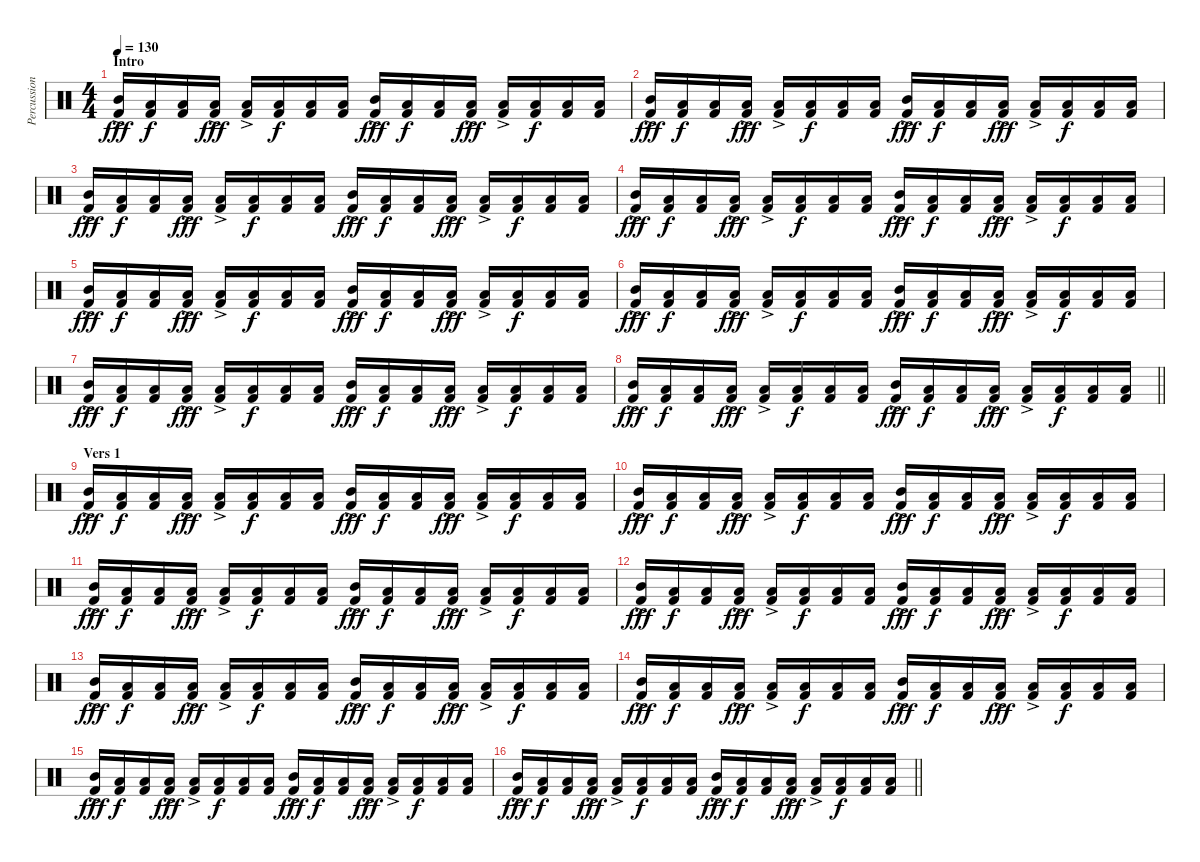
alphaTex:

\track ("Percussion" "Percussion") {instrument percussion}
\staff {score}
\articulation defaults
\ts (4 4)
\section ("" "Intro")
\tempo 130
\clef neutral
\ks c
("Mid Tom (hit)"{ac} "Kick (hit) 2").16{dy fff} ("Low Floor Tom (hit)" "Kick (hit) 2").16{dy f} ("Low Floor Tom (hit)" "Kick (hit) 2").16 ("Low Tom (hit)"{ac} "Kick (hit) 2").16{dy fff} ("Low Tom (hit)"{ac} "Kick (hit) 2").16 ("Low Floor Tom (hit)" "Kick (hit) 2").16{dy f} ("Low Floor Tom (hit)" "Kick (hit) 2").16 ("Low Floor Tom (hit)" "Kick (hit) 2").16 ("Mid Tom (hit)"{ac} "Kick (hit) 2").16{dy fff} ("Low Floor Tom (hit)" "Kick (hit) 2").16{dy f} ("Low Floor Tom (hit)" "Kick (hit) 2").16 ("Low Tom (hit)"{ac} "Kick (hit) 2").16{dy fff} ("Low Tom (hit)"{ac} "Kick (hit) 2").16 ("Low Floor Tom (hit)" "Kick (hit) 2").16{dy f} ("Low Floor Tom (hit)" "Kick (hit) 2").16 ("Low Floor Tom (hit)" "Kick (hit) 2").16 |
("Mid Tom (hit)"{ac} "Kick (hit) 2").16{dy fff} ("Low Floor Tom (hit)" "Kick (hit) 2").16{dy f} ("Low Floor Tom (hit)" "Kick (hit) 2").16 ("Low Tom (hit)"{ac} "Kick (hit) 2").16{dy fff} ("Low Tom (hit)"{ac} "Kick (hit) 2").16 ("Low Floor Tom (hit)" "Kick (hit) 2").16{dy f} ("Low Floor Tom (hit)" "Kick (hit) 2").16 ("Low Floor Tom (hit)" "Kick (hit) 2").16 ("Mid Tom (hit)"{ac} "Kick (hit) 2").16{dy fff} ("Low Floor Tom (hit)" "Kick (hit) 2").16{dy f} ("Low Floor Tom (hit)" "Kick (hit) 2").16 ("Low Tom (hit)"{ac} "Kick (hit) 2").16{dy fff} ("Low Tom (hit)"{ac} "Kick (hit) 2").16 ("Low Floor Tom (hit)" "Kick (hit) 2").16{dy f} ("Low Floor Tom (hit)" "Kick (hit) 2").16 ("Low Floor Tom (hit)" "Kick (hit) 2").16 |
("Mid Tom (hit)"{ac} "Kick (hit) 2").16{dy fff} ("Low Floor Tom (hit)" "Kick (hit) 2").16{dy f} ("Low Floor Tom (hit)" "Kick (hit) 2").16 ("Low Tom (hit)"{ac} "Kick (hit) 2").16{dy fff} ("Low Tom (hit)"{ac} "Kick (hit) 2").16 ("Low Floor Tom (hit)" "Kick (hit) 2").16{dy f} ("Low Floor Tom (hit)" "Kick (hit) 2").16 ("Low Floor Tom (hit)" "Kick (hit) 2").16 ("Mid Tom (hit)"{ac} "Kick (hit) 2").16{dy fff} ("Low Floor Tom (hit)" "Kick (hit) 2").16{dy f} ("Low Floor Tom (hit)" "Kick (hit) 2").16 ("Low Tom (hit)"{ac} "Kick (hit) 2").16{dy fff} ("Low Tom (hit)"{ac} "Kick (hit) 2").16 ("Low Floor Tom (hit)" "Kick (hit) 2").16{dy f} ("Low Floor Tom (hit)" "Kick (hit) 2").16 ("Low Floor Tom (hit)" "Kick (hit) 2").16 |
("Mid Tom (hit)"{ac} "Kick (hit) 2").16{dy fff} ("Low Floor Tom (hit)" "Kick (hit) 2").16{dy f} ("Low Floor Tom (hit)" "Kick (hit) 2").16 ("Low Tom (hit)"{ac} "Kick (hit) 2").16{dy fff} ("Low Tom (hit)"{ac} "Kick (hit) 2").16 ("Low Floor Tom (hit)" "Kick (hit) 2").16{dy f} ("Low Floor Tom (hit)" "Kick (hit) 2").16 ("Low Floor Tom (hit)" "Kick (hit) 2").16 ("Mid Tom (hit)"{ac} "Kick (hit) 2").16{dy fff} ("Low Floor Tom (hit)" "Kick (hit) 2").16{dy f} ("Low Floor Tom (hit)" "Kick (hit) 2").16 ("Low Tom (hit)"{ac} "Kick (hit) 2").16{dy fff} ("Low Tom (hit)"{ac} "Kick (hit) 2").16 ("Low Floor Tom (hit)" "Kick (hit) 2").16{dy f} ("Low Floor Tom (hit)" "Kick (hit) 2").16 ("Low Floor Tom (hit)" "Kick (hit) 2").16 |
("Mid Tom (hit)"{ac} "Kick (hit) 2").16{dy fff} ("Low Floor Tom (hit)" "Kick (hit) 2").16{dy f} ("Low Floor Tom (hit)" "Kick (hit) 2").16 ("Low Tom (hit)"{ac} "Kick (hit) 2").16{dy fff} ("Low Tom (hit)"{ac} "Kick (hit) 2").16 ("Low Floor Tom (hit)" "Kick (hit) 2").16{dy f} ("Low Floor Tom (hit)" "Kick (hit) 2").16 ("Low Floor Tom (hit)" "Kick (hit) 2").16 ("Mid Tom (hit)"{ac} "Kick (hit) 2").16{dy fff} ("Low Floor Tom (hit)" "Kick (hit) 2").16{dy f} ("Low Floor Tom (hit)" "Kick (hit) 2").16 ("Low Tom (hit)"{ac} "Kick (hit) 2").16{dy fff} ("Low Tom (hit)"{ac} "Kick (hit) 2").16 ("Low Floor Tom (hit)" "Kick (hit) 2").16{dy f} ("Low Floor Tom (hit)" "Kick (hit) 2").16 ("Low Floor Tom (hit)" "Kick (hit) 2").16 |
("Mid Tom (hit)"{ac} "Kick (hit) 2").16{dy fff} ("Low Floor Tom (hit)" "Kick (hit) 2").16{dy f} ("Low Floor Tom (hit)" "Kick (hit) 2").16 ("Low Tom (hit)"{ac} "Kick (hit) 2").16{dy fff} ("Low Tom (hit)"{ac} "Kick (hit) 2").16 ("Low Floor Tom (hit)" "Kick (hit) 2").16{dy f} ("Low Floor Tom (hit)" "Kick (hit) 2").16 ("Low Floor Tom (hit)" "Kick (hit) 2").16 ("Mid Tom (hit)"{ac} "Kick (hit) 2").16{dy fff} ("Low Floor Tom (hit)" "Kick (hit) 2").16{dy f} ("Low Floor Tom (hit)" "Kick (hit) 2").16 ("Low Tom (hit)"{ac} "Kick (hit) 2").16{dy fff} ("Low Tom (hit)"{ac} "Kick (hit) 2").16 ("Low Floor Tom (hit)" "Kick (hit) 2").16{dy f} ("Low Floor Tom (hit)" "Kick (hit) 2").16 ("Low Floor Tom (hit)" "Kick (hit) 2").16 |
("Mid Tom (hit)"{ac} "Kick (hit) 2").16{dy fff} ("Low Floor Tom (hit)" "Kick (hit) 2").16{dy f} ("Low Floor Tom (hit)" "Kick (hit) 2").16 ("Low Tom (hit)"{ac} "Kick (hit) 2").16{dy fff} ("Low Tom (hit)"{ac} "Kick (hit) 2").16 ("Low Floor Tom (hit)" "Kick (hit) 2").16{dy f} ("Low Floor Tom (hit)" "Kick (hit) 2").16 ("Low Floor Tom (hit)" "Kick (hit) 2").16 ("Mid Tom (hit)"{ac} "Kick (hit) 2").16{dy fff} ("Low Floor Tom (hit)" "Kick (hit) 2").16{dy f} ("Low Floor Tom (hit)" "Kick (hit) 2").16 ("Low Tom (hit)"{ac} "Kick (hit) 2").16{dy fff} ("Low Tom (hit)"{ac} "Kick (hit) 2").16 ("Low Floor Tom (hit)" "Kick (hit) 2").16{dy f} ("Low Floor Tom (hit)" "Kick (hit) 2").16 ("Low Floor Tom (hit)" "Kick (hit) 2").16 |
\barLineRight lightlight
("Mid Tom (hit)"{ac} "Kick (hit) 2").16{dy fff} ("Low Floor Tom (hit)" "Kick (hit) 2").16{dy f} ("Low Floor Tom (hit)" "Kick (hit) 2").16 ("Low Tom (hit)"{ac} "Kick (hit) 2").16{dy fff} ("Low Tom (hit)"{ac} "Kick (hit) 2").16 ("Low Floor Tom (hit)" "Kick (hit) 2").16{dy f} ("Low Floor Tom (hit)" "Kick (hit) 2").16 ("Low Floor Tom (hit)" "Kick (hit) 2").16 ("Mid Tom (hit)"{ac} "Kick (hit) 2").16{dy fff} ("Low Floor Tom (hit)" "Kick (hit) 2").16{dy f} ("Low Floor Tom (hit)" "Kick (hit) 2").16 ("Low Tom (hit)"{ac} "Kick (hit) 2").16{dy fff} ("Low Tom (hit)"{ac} "Kick (hit) 2").16 ("Low Floor Tom (hit)" "Kick (hit) 2").16{dy f} ("Low Floor Tom (hit)" "Kick (hit) 2").16 ("Low Floor Tom (hit)" "Kick (hit) 2").16 |
\section ("" "Vers 1")
("Mid Tom (hit)"{ac} "Kick (hit) 2").16{dy fff} ("Low Floor Tom (hit)" "Kick (hit) 2").16{dy f} ("Low Floor Tom (hit)" "Kick (hit) 2").16 ("Low Tom (hit)"{ac} "Kick (hit) 2").16{dy fff} ("Low Tom (hit)"{ac} "Kick (hit) 2").16 ("Low Floor Tom (hit)" "Kick (hit) 2").16{dy f} ("Low Floor Tom (hit)" "Kick (hit) 2").16 ("Low Floor Tom (hit)" "Kick (hit) 2").16 ("Mid Tom (hit)"{ac} "Kick (hit) 2").16{dy fff} ("Low Floor Tom (hit)" "Kick (hit) 2").16{dy f} ("Low Floor Tom (hit)" "Kick (hit) 2").16 ("Low Tom (hit)"{ac} "Kick (hit) 2").16{dy fff} ("Low Tom (hit)"{ac} "Kick (hit) 2").16 ("Low Floor Tom (hit)" "Kick (hit) 2").16{dy f} ("Low Floor Tom (hit)" "Kick (hit) 2").16 ("Low Floor Tom (hit)" "Kick (hit) 2").16 |
("Mid Tom (hit)"{ac} "Kick (hit) 2").16{dy fff} ("Low Floor Tom (hit)" "Kick (hit) 2").16{dy f} ("Low Floor Tom (hit)" "Kick (hit) 2").16 ("Low Tom (hit)"{ac} "Kick (hit) 2").16{dy fff} ("Low Tom (hit)"{ac} "Kick (hit) 2").16 ("Low Floor Tom (hit)" "Kick (hit) 2").16{dy f} ("Low Floor Tom (hit)" "Kick (hit) 2").16 ("Low Floor Tom (hit)" "Kick (hit) 2").16 ("Mid Tom (hit)"{ac} "Kick (hit) 2").16{dy fff} ("Low Floor Tom (hit)" "Kick (hit) 2").16{dy f} ("Low Floor Tom (hit)" "Kick (hit) 2").16 ("Low Tom (hit)"{ac} "Kick (hit) 2").16{dy fff} ("Low Tom (hit)"{ac} "Kick (hit) 2").16 ("Low Floor Tom (hit)" "Kick (hit) 2").16{dy f} ("Low Floor Tom (hit)" "Kick (hit) 2").16 ("Low Floor Tom (hit)" "Kick (hit) 2").16 |
("Mid Tom (hit)"{ac} "Kick (hit) 2").16{dy fff} ("Low Floor Tom (hit)" "Kick (hit) 2").16{dy f} ("Low Floor Tom (hit)" "Kick (hit) 2").16 ("Low Tom (hit)"{ac} "Kick (hit) 2").16{dy fff} ("Low Tom (hit)"{ac} "Kick (hit) 2").16 ("Low Floor Tom (hit)" "Kick (hit) 2").16{dy f} ("Low Floor Tom (hit)" "Kick (hit) 2").16 ("Low Floor Tom (hit)" "Kick (hit) 2").16 ("Mid Tom (hit)"{ac} "Kick (hit) 2").16{dy fff} ("Low Floor Tom (hit)" "Kick (hit) 2").16{dy f} ("Low Floor Tom (hit)" "Kick (hit) 2").16 ("Low Tom (hit)"{ac} "Kick (hit) 2").16{dy fff} ("Low Tom (hit)"{ac} "Kick (hit) 2").16 ("Low Floor Tom (hit)" "Kick (hit) 2").16{dy f} ("Low Floor Tom (hit)" "Kick (hit) 2").16 ("Low Floor Tom (hit)" "Kick (hit) 2").16 |
("Mid Tom (hit)"{ac} "Kick (hit) 2").16{dy fff} ("Low Floor Tom (hit)" "Kick (hit) 2").16{dy f} ("Low Floor Tom (hit)" "Kick (hit) 2").16 ("Low Tom (hit)"{ac} "Kick (hit) 2").16{dy fff} ("Low Tom (hit)"{ac} "Kick (hit) 2").16 ("Low Floor Tom (hit)" "Kick (hit) 2").16{dy f} ("Low Floor Tom (hit)" "Kick (hit) 2").16 ("Low Floor Tom (hit)" "Kick (hit) 2").16 ("Mid Tom (hit)"{ac} "Kick (hit) 2").16{dy fff} ("Low Floor Tom (hit)" "Kick (hit) 2").16{dy f} ("Low Floor Tom (hit)" "Kick (hit) 2").16 ("Low Tom (hit)"{ac} "Kick (hit) 2").16{dy fff} ("Low Tom (hit)"{ac} "Kick (hit) 2").16 ("Low Floor Tom (hit)" "Kick (hit) 2").16{dy f} ("Low Floor Tom (hit)" "Kick (hit) 2").16 ("Low Floor Tom (hit)" "Kick (hit) 2").16 |
("Mid Tom (hit)"{ac} "Kick (hit) 2").16{dy fff} ("Low Floor Tom (hit)" "Kick (hit) 2").16{dy f} ("Low Floor Tom (hit)" "Kick (hit) 2").16 ("Low Tom (hit)"{ac} "Kick (hit) 2").16{dy fff} ("Low Tom (hit)"{ac} "Kick (hit) 2").16 ("Low Floor Tom (hit)" "Kick (hit) 2").16{dy f} ("Low Floor Tom (hit)" "Kick (hit) 2").16 ("Low Floor Tom (hit)" "Kick (hit) 2").16 ("Mid Tom (hit)"{ac} "Kick (hit) 2").16{dy fff} ("Low Floor Tom (hit)" "Kick (hit) 2").16{dy f} ("Low Floor Tom (hit)" "Kick (hit) 2").16 ("Low Tom (hit)"{ac} "Kick (hit) 2").16{dy fff} ("Low Tom (hit)"{ac} "Kick (hit) 2").16 ("Low Floor Tom (hit)" "Kick (hit) 2").16{dy f} ("Low Floor Tom (hit)" "Kick (hit) 2").16 ("Low Floor Tom (hit)" "Kick (hit) 2").16 |
("Mid Tom (hit)"{ac} "Kick (hit) 2").16{dy fff} ("Low Floor Tom (hit)" "Kick (hit) 2").16{dy f} ("Low Floor Tom (hit)" "Kick (hit) 2").16 ("Low Tom (hit)"{ac} "Kick (hit) 2").16{dy fff} ("Low Tom (hit)"{ac} "Kick (hit) 2").16 ("Low Floor Tom (hit)" "Kick (hit) 2").16{dy f} ("Low Floor Tom (hit)" "Kick (hit) 2").16 ("Low Floor Tom (hit)" "Kick (hit) 2").16 ("Mid Tom (hit)"{ac} "Kick (hit) 2").16{dy fff} ("Low Floor Tom (hit)" "Kick (hit) 2").16{dy f} ("Low Floor Tom (hit)" "Kick (hit) 2").16 ("Low Tom (hit)"{ac} "Kick (hit) 2").16{dy fff} ("Low Tom (hit)"{ac} "Kick (hit) 2").16 ("Low Floor Tom (hit)" "Kick (hit) 2").16{dy f} ("Low Floor Tom (hit)" "Kick (hit) 2").16 ("Low Floor Tom (hit)" "Kick (hit) 2").16 |
("Mid Tom (hit)"{ac} "Kick (hit) 2").16{dy fff} ("Low Floor Tom (hit)" "Kick (hit) 2").16{dy f} ("Low Floor Tom (hit)" "Kick (hit) 2").16 ("Low Tom (hit)"{ac} "Kick (hit) 2").16{dy fff} ("Low Tom (hit)"{ac} "Kick (hit) 2").16 ("Low Floor Tom (hit)" "Kick (hit) 2").16{dy f} ("Low Floor Tom (hit)" "Kick (hit) 2").16 ("Low Floor Tom (hit)" "Kick (hit) 2").16 ("Mid Tom (hit)"{ac} "Kick (hit) 2").16{dy fff} ("Low Floor Tom (hit)" "Kick (hit) 2").16{dy f} ("Low Floor Tom (hit)" "Kick (hit) 2").16 ("Low Tom (hit)"{ac} "Kick (hit) 2").16{dy fff} ("Low Tom (hit)"{ac} "Kick (hit) 2").16 ("Low Floor Tom (hit)" "Kick (hit) 2").16{dy f} ("Low Floor Tom (hit)" "Kick (hit) 2").16 ("Low Floor Tom (hit)" "Kick (hit) 2").16 |
\barLineRight lightlight
("Mid Tom (hit)"{ac} "Kick (hit) 2").16{dy fff} ("Low Floor Tom (hit)" "Kick (hit) 2").16{dy f} ("Low Floor Tom (hit)" "Kick (hit) 2").16 ("Low Tom (hit)"{ac} "Kick (hit) 2").16{dy fff} ("Low Tom (hit)"{ac} "Kick (hit) 2").16 ("Low Floor Tom (hit)" "Kick (hit) 2").16{dy f} ("Low Floor Tom (hit)" "Kick (hit) 2").16 ("Low Floor Tom (hit)" "Kick (hit) 2").16 ("Mid Tom (hit)"{ac} "Kick (hit) 2").16{dy fff} ("Low Floor Tom (hit)" "Kick (hit) 2").16{dy f} ("Low Floor Tom (hit)" "Kick (hit) 2").16 ("Low Tom (hit)"{ac} "Kick (hit) 2").16{dy fff} ("Low Tom (hit)"{ac} "Kick (hit) 2").16 ("Low Floor Tom (hit)" "Kick (hit) 2").16{dy f} ("Low Floor Tom (hit)" "Kick (hit) 2").16 ("Low Floor Tom (hit)" "Kick (hit) 2").16
